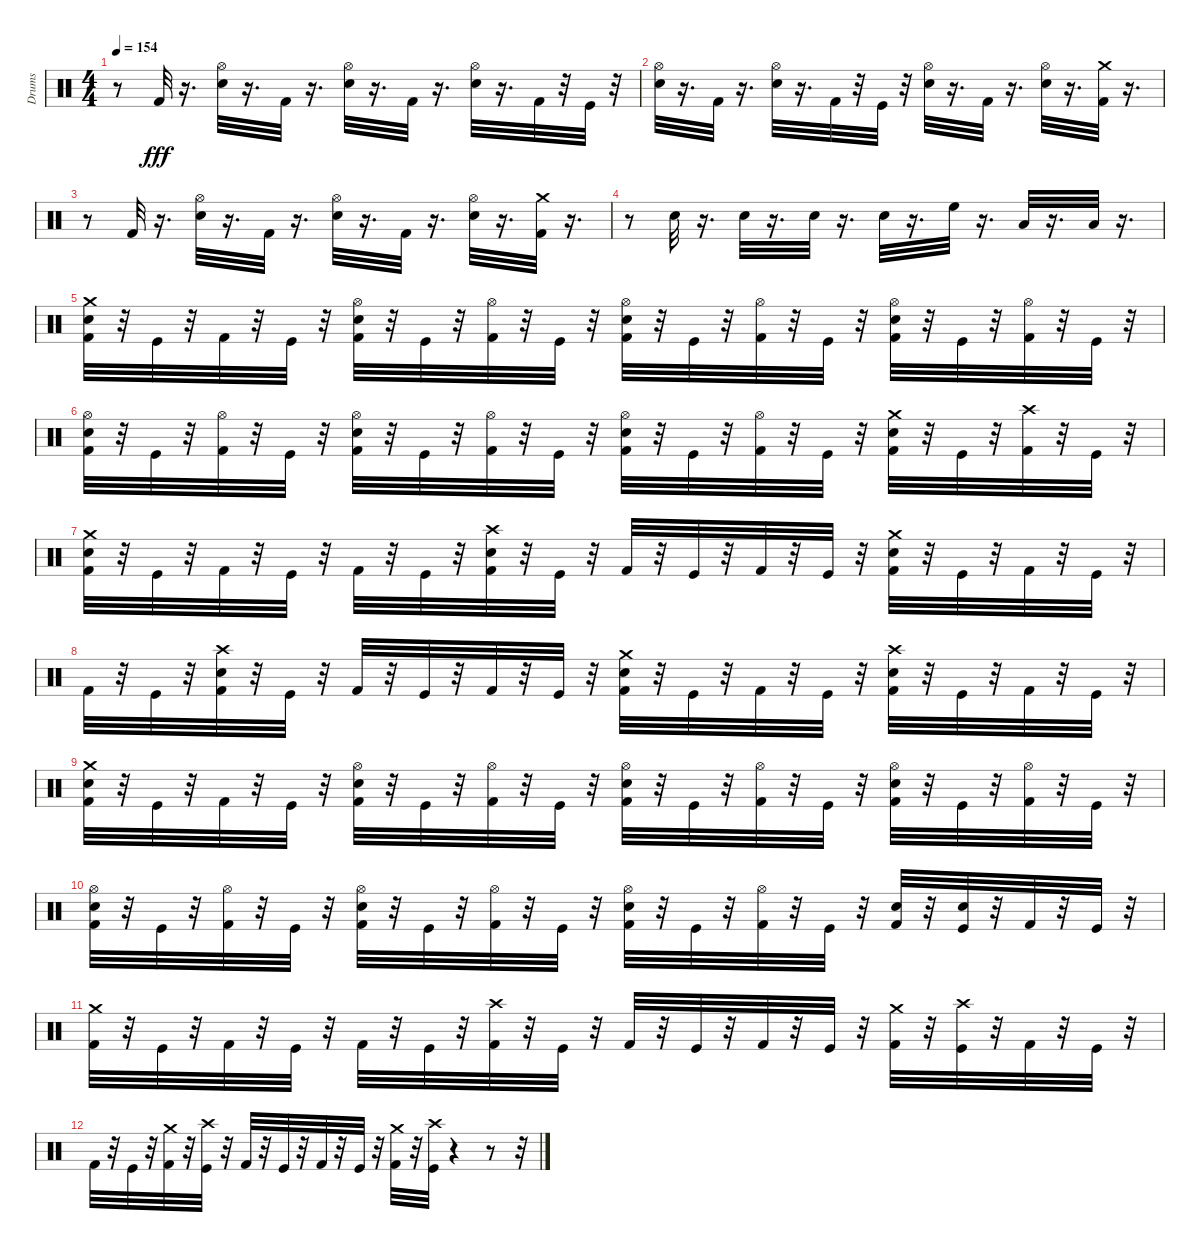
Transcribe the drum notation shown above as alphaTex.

\track ("Drums" "Drums") {instrument percussion}
\staff {score}
\articulation defaults
\ts (4 4)
\tempo 154
\clef neutral
\ks c
r.8{dy fff} "Kick (hit) 2".32 r.16{d} ("Snare (hit) 2" "Hi-Hat (open)").32 r.16{d} "Kick (hit) 2".32 r.16{d} ("Snare (hit) 2" "Hi-Hat (open)").32 r.16{d} "Kick (hit) 2".32 r.16{d} ("Snare (hit) 2" "Hi-Hat (open)").32 r.16{d} "Kick (hit) 2".32 r.32 "Kick (hit)".32 r.32 |
("Snare (hit) 2" "Hi-Hat (open)").32 r.16{d} "Kick (hit) 2".32 r.16{d} ("Snare (hit) 2" "Hi-Hat (open)").32 r.16{d} "Kick (hit) 2".32 r.32 "Kick (hit)".32 r.32 ("Snare (hit) 2" "Hi-Hat (open)").32 r.16{d} "Kick (hit) 2".32 r.16{d} ("Snare (hit) 2" "Hi-Hat (open)").32 r.16{d} ("Kick (hit) 2" "Crash medium (hit)").32 r.16{d} |
r.8 "Kick (hit) 2".32 r.16{d} ("Snare (hit) 2" "Hi-Hat (open)").32 r.16{d} "Kick (hit) 2".32 r.16{d} ("Snare (hit) 2" "Hi-Hat (open)").32 r.16{d} "Kick (hit) 2".32 r.16{d} ("Snare (hit) 2" "Hi-Hat (open)").32 r.16{d} ("Kick (hit) 2" "Crash medium (hit)").32 r.16{d} |
r.8 "Snare (hit) 2".32 r.16{d} "Snare (hit) 2".32 r.16{d} "Snare (hit) 2".32 r.16{d} "Snare (hit) 2".32 r.16{d} "High Floor Tom (hit)".32 r.16{d} "Low Tom (hit)".32 r.16{d} "Low Floor Tom (hit)".32 r.16{d} |
("Kick (hit) 2" "Snare (hit) 2" "Crash medium (hit)").32 r.32 "Kick (hit)".32 r.32 "Kick (hit) 2".32 r.32 "Kick (hit)".32 r.32 ("Kick (hit) 2" "Snare (hit) 2" "Hi-Hat (open)").32 r.32 "Kick (hit)".32 r.32 ("Kick (hit) 2" "Hi-Hat (open)").32 r.32 "Kick (hit)".32 r.32 ("Kick (hit) 2" "Snare (hit) 2" "Hi-Hat (open)").32 r.32 "Kick (hit)".32 r.32 ("Kick (hit) 2" "Hi-Hat (open)").32 r.32 "Kick (hit)".32 r.32 ("Kick (hit) 2" "Snare (hit) 2" "Hi-Hat (open)").32 r.32 "Kick (hit)".32 r.32 ("Kick (hit) 2" "Hi-Hat (open)").32 r.32 "Kick (hit)".32 r.32 |
("Kick (hit) 2" "Snare (hit) 2" "Hi-Hat (open)").32 r.32 "Kick (hit)".32 r.32 ("Kick (hit) 2" "Hi-Hat (open)").32 r.32 "Kick (hit)".32 r.32 ("Kick (hit) 2" "Snare (hit) 2" "Hi-Hat (open)").32 r.32 "Kick (hit)".32 r.32 ("Kick (hit) 2" "Hi-Hat (open)").32 r.32 "Kick (hit)".32 r.32 ("Kick (hit) 2" "Snare (hit) 2" "Hi-Hat (open)").32 r.32 "Kick (hit)".32 r.32 ("Kick (hit) 2" "Hi-Hat (open)").32 r.32 "Kick (hit)".32 r.32 ("Kick (hit) 2" "Snare (hit) 2" "Crash medium (hit)").32 r.32 "Kick (hit)".32 r.32 ("Kick (hit) 2" "Crash high (hit)").32 r.32 "Kick (hit)".32 r.32 |
("Crash medium (hit)" "Snare (hit) 2" "Kick (hit) 2").32 r.32 "Kick (hit)".32 r.32 "Kick (hit) 2".32 r.32 "Kick (hit)".32 r.32 "Kick (hit) 2".32 r.32 "Kick (hit)".32 r.32 ("Crash high (hit)" "Snare (hit) 2" "Kick (hit) 2").32 r.32 "Kick (hit)".32 r.32 "Kick (hit) 2".32 r.32 "Kick (hit)".32 r.32 "Kick (hit) 2".32 r.32 "Kick (hit)".32 r.32 ("Crash medium (hit)" "Snare (hit) 2" "Kick (hit) 2").32 r.32 "Kick (hit)".32 r.32 "Kick (hit) 2".32 r.32 "Kick (hit)".32 r.32 |
"Kick (hit) 2".32 r.32 "Kick (hit)".32 r.32 ("Crash high (hit)" "Snare (hit) 2" "Kick (hit) 2").32 r.32 "Kick (hit)".32 r.32 "Kick (hit) 2".32 r.32 "Kick (hit)".32 r.32 "Kick (hit) 2".32 r.32 "Kick (hit)".32 r.32 ("Crash medium (hit)" "Snare (hit) 2" "Kick (hit) 2").32 r.32 "Kick (hit)".32 r.32 "Kick (hit) 2".32 r.32 "Kick (hit)".32 r.32 ("Crash high (hit)" "Snare (hit) 2" "Kick (hit) 2").32 r.32 "Kick (hit)".32 r.32 "Kick (hit) 2".32 r.32 "Kick (hit)".32 r.32 |
("Snare (hit) 2" "Crash medium (hit)" "Kick (hit) 2").32 r.32 "Kick (hit)".32 r.32 "Kick (hit) 2".32 r.32 "Kick (hit)".32 r.32 ("Snare (hit) 2" "Hi-Hat (open)" "Kick (hit) 2").32 r.32 "Kick (hit)".32 r.32 ("Hi-Hat (open)" "Kick (hit) 2").32 r.32 "Kick (hit)".32 r.32 ("Snare (hit) 2" "Hi-Hat (open)" "Kick (hit) 2").32 r.32 "Kick (hit)".32 r.32 ("Hi-Hat (open)" "Kick (hit) 2").32 r.32 "Kick (hit)".32 r.32 ("Snare (hit) 2" "Hi-Hat (open)" "Kick (hit) 2").32 r.32 "Kick (hit)".32 r.32 ("Hi-Hat (open)" "Kick (hit) 2").32 r.32 "Kick (hit)".32 r.32 |
("Snare (hit) 2" "Hi-Hat (open)" "Kick (hit) 2").32 r.32 "Kick (hit)".32 r.32 ("Hi-Hat (open)" "Kick (hit) 2").32 r.32 "Kick (hit)".32 r.32 ("Snare (hit) 2" "Hi-Hat (open)" "Kick (hit) 2").32 r.32 "Kick (hit)".32 r.32 ("Hi-Hat (open)" "Kick (hit) 2").32 r.32 "Kick (hit)".32 r.32 ("Snare (hit) 2" "Hi-Hat (open)" "Kick (hit) 2").32 r.32 "Kick (hit)".32 r.32 ("Hi-Hat (open)" "Kick (hit) 2").32 r.32 "Kick (hit)".32 r.32 ("Snare (hit) 2" "Kick (hit) 2").32 r.32 ("Snare (hit) 2" "Kick (hit)").32 r.32 "Kick (hit) 2".32 r.32 "Kick (hit)".32 r.32 |
("Crash medium (hit)" "Kick (hit) 2").32 r.32 "Kick (hit)".32 r.32 "Kick (hit) 2".32 r.32 "Kick (hit)".32 r.32 "Kick (hit) 2".32 r.32 "Kick (hit)".32 r.32 ("Crash high (hit)" "Kick (hit) 2").32 r.32 "Kick (hit)".32 r.32 "Kick (hit) 2".32 r.32 "Kick (hit)".32 r.32 "Kick (hit) 2".32 r.32 "Kick (hit)".32 r.32 ("Crash medium (hit)" "Kick (hit) 2").32 r.32 ("Crash high (hit)" "Kick (hit)").32 r.32 "Kick (hit) 2".32 r.32 "Kick (hit)".32 r.32 |
"Kick (hit) 2".32 r.32 "Kick (hit)".32 r.32 ("Crash medium (hit)" "Kick (hit) 2").32 r.32 ("Crash high (hit)" "Kick (hit)").32 r.32 "Kick (hit) 2".32 r.32 "Kick (hit)".32 r.32 "Kick (hit) 2".32 r.32 "Kick (hit)".32 r.32 ("Crash medium (hit)" "Kick (hit) 2").32 r.32 ("Crash high (hit)" "Kick (hit)").32 r.4 r.8 r.32
